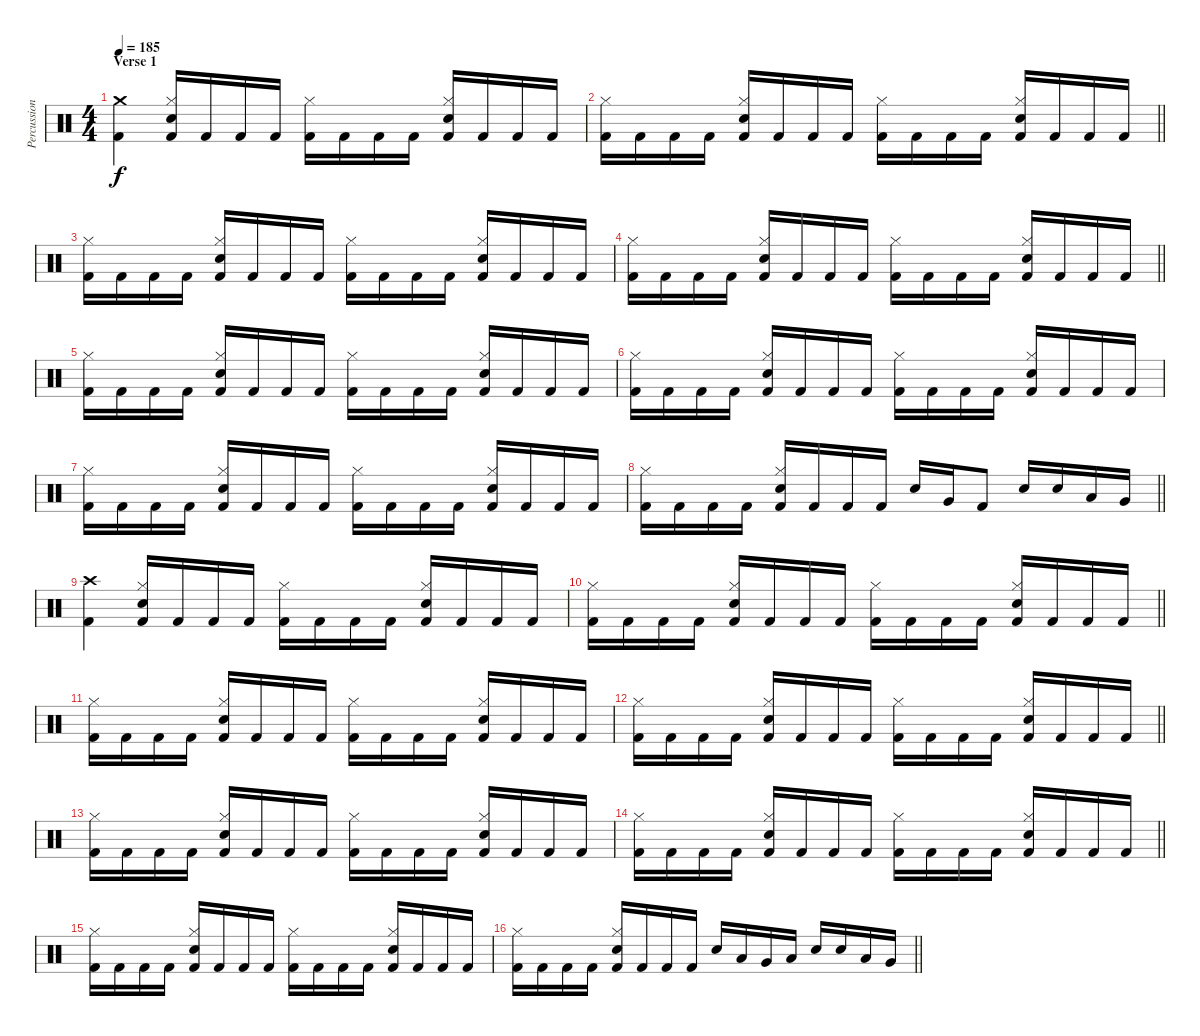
\track ("Percussion" "Percussion") {instrument percussion}
\staff {score}
\articulation defaults
\ts (4 4)
\section ("" "Verse 1")
\tempo 185
\clef neutral
\ks c
("Crash medium (hit)" "Kick (hit) 2").4{dy f} ("Hi-Hat (closed)" "Snare (hit) 2" "Kick (hit) 2").16 "Kick (hit) 2".16 "Kick (hit) 2".16 "Kick (hit) 2".16 ("Hi-Hat (closed)" "Kick (hit) 2").16 "Kick (hit) 2".16 "Kick (hit) 2".16 "Kick (hit) 2".16 ("Hi-Hat (closed)" "Snare (hit) 2" "Kick (hit) 2").16 "Kick (hit) 2".16 "Kick (hit) 2".16 "Kick (hit) 2".16 |
\barLineRight lightlight
("Hi-Hat (closed)" "Kick (hit) 2").16 "Kick (hit) 2".16 "Kick (hit) 2".16 "Kick (hit) 2".16 ("Hi-Hat (closed)" "Snare (hit) 2" "Kick (hit) 2").16 "Kick (hit) 2".16 "Kick (hit) 2".16 "Kick (hit) 2".16 ("Hi-Hat (closed)" "Kick (hit) 2").16 "Kick (hit) 2".16 "Kick (hit) 2".16 "Kick (hit) 2".16 ("Hi-Hat (closed)" "Snare (hit) 2" "Kick (hit) 2").16 "Kick (hit) 2".16 "Kick (hit) 2".16 "Kick (hit) 2".16 |
("Hi-Hat (closed)" "Kick (hit) 2").16 "Kick (hit) 2".16 "Kick (hit) 2".16 "Kick (hit) 2".16 ("Hi-Hat (closed)" "Snare (hit) 2" "Kick (hit) 2").16 "Kick (hit) 2".16 "Kick (hit) 2".16 "Kick (hit) 2".16 ("Hi-Hat (closed)" "Kick (hit) 2").16 "Kick (hit) 2".16 "Kick (hit) 2".16 "Kick (hit) 2".16 ("Hi-Hat (closed)" "Snare (hit) 2" "Kick (hit) 2").16 "Kick (hit) 2".16 "Kick (hit) 2".16 "Kick (hit) 2".16 |
\barLineRight lightlight
("Hi-Hat (closed)" "Kick (hit) 2").16 "Kick (hit) 2".16 "Kick (hit) 2".16 "Kick (hit) 2".16 ("Hi-Hat (closed)" "Snare (hit) 2" "Kick (hit) 2").16 "Kick (hit) 2".16 "Kick (hit) 2".16 "Kick (hit) 2".16 ("Hi-Hat (closed)" "Kick (hit) 2").16 "Kick (hit) 2".16 "Kick (hit) 2".16 "Kick (hit) 2".16 ("Hi-Hat (closed)" "Snare (hit) 2" "Kick (hit) 2").16 "Kick (hit) 2".16 "Kick (hit) 2".16 "Kick (hit) 2".16 |
("Hi-Hat (closed)" "Kick (hit) 2").16 "Kick (hit) 2".16 "Kick (hit) 2".16 "Kick (hit) 2".16 ("Hi-Hat (closed)" "Snare (hit) 2" "Kick (hit) 2").16 "Kick (hit) 2".16 "Kick (hit) 2".16 "Kick (hit) 2".16 ("Hi-Hat (closed)" "Kick (hit) 2").16 "Kick (hit) 2".16 "Kick (hit) 2".16 "Kick (hit) 2".16 ("Hi-Hat (closed)" "Snare (hit) 2" "Kick (hit) 2").16 "Kick (hit) 2".16 "Kick (hit) 2".16 "Kick (hit) 2".16 |
("Hi-Hat (closed)" "Kick (hit) 2").16 "Kick (hit) 2".16 "Kick (hit) 2".16 "Kick (hit) 2".16 ("Hi-Hat (closed)" "Snare (hit) 2" "Kick (hit) 2").16 "Kick (hit) 2".16 "Kick (hit) 2".16 "Kick (hit) 2".16 ("Hi-Hat (closed)" "Kick (hit) 2").16 "Kick (hit) 2".16 "Kick (hit) 2".16 "Kick (hit) 2".16 ("Hi-Hat (closed)" "Snare (hit) 2" "Kick (hit) 2").16 "Kick (hit) 2".16 "Kick (hit) 2".16 "Kick (hit) 2".16 |
("Hi-Hat (closed)" "Kick (hit) 2").16 "Kick (hit) 2".16 "Kick (hit) 2".16 "Kick (hit) 2".16 ("Hi-Hat (closed)" "Snare (hit) 2" "Kick (hit) 2").16 "Kick (hit) 2".16 "Kick (hit) 2".16 "Kick (hit) 2".16 ("Hi-Hat (closed)" "Kick (hit) 2").16 "Kick (hit) 2".16 "Kick (hit) 2".16 "Kick (hit) 2".16 ("Hi-Hat (closed)" "Snare (hit) 2" "Kick (hit) 2").16 "Kick (hit) 2".16 "Kick (hit) 2".16 "Kick (hit) 2".16 |
\barLineRight lightlight
("Hi-Hat (closed)" "Kick (hit) 2").16 "Kick (hit) 2".16 "Kick (hit) 2".16 "Kick (hit) 2".16 ("Hi-Hat (closed)" "Snare (hit) 2" "Kick (hit) 2").16 "Kick (hit) 2".16 "Kick (hit) 2".16 "Kick (hit) 2".16 "Snare (hit) 2".16 "Very Low Tom (hit)".16 "Kick (hit) 2".8 "Snare (hit) 2".16 "Snare (hit) 2".16 "Low Tom (hit)".16 "Very Low Tom (hit)".16 |
("Crash high (hit)" "Kick (hit) 2").4 ("Hi-Hat (closed)" "Snare (hit) 2" "Kick (hit) 2").16 "Kick (hit) 2".16 "Kick (hit) 2".16 "Kick (hit) 2".16 ("Hi-Hat (closed)" "Kick (hit) 2").16 "Kick (hit) 2".16 "Kick (hit) 2".16 "Kick (hit) 2".16 ("Hi-Hat (closed)" "Snare (hit) 2" "Kick (hit) 2").16 "Kick (hit) 2".16 "Kick (hit) 2".16 "Kick (hit) 2".16 |
\barLineRight lightlight
("Hi-Hat (closed)" "Kick (hit) 2").16 "Kick (hit) 2".16 "Kick (hit) 2".16 "Kick (hit) 2".16 ("Hi-Hat (closed)" "Snare (hit) 2" "Kick (hit) 2").16 "Kick (hit) 2".16 "Kick (hit) 2".16 "Kick (hit) 2".16 ("Hi-Hat (closed)" "Kick (hit) 2").16 "Kick (hit) 2".16 "Kick (hit) 2".16 "Kick (hit) 2".16 ("Hi-Hat (closed)" "Snare (hit) 2" "Kick (hit) 2").16 "Kick (hit) 2".16 "Kick (hit) 2".16 "Kick (hit) 2".16 |
("Hi-Hat (closed)" "Kick (hit) 2").16 "Kick (hit) 2".16 "Kick (hit) 2".16 "Kick (hit) 2".16 ("Hi-Hat (closed)" "Snare (hit) 2" "Kick (hit) 2").16 "Kick (hit) 2".16 "Kick (hit) 2".16 "Kick (hit) 2".16 ("Hi-Hat (closed)" "Kick (hit) 2").16 "Kick (hit) 2".16 "Kick (hit) 2".16 "Kick (hit) 2".16 ("Hi-Hat (closed)" "Snare (hit) 2" "Kick (hit) 2").16 "Kick (hit) 2".16 "Kick (hit) 2".16 "Kick (hit) 2".16 |
\barLineRight lightlight
("Hi-Hat (closed)" "Kick (hit) 2").16 "Kick (hit) 2".16 "Kick (hit) 2".16 "Kick (hit) 2".16 ("Hi-Hat (closed)" "Snare (hit) 2" "Kick (hit) 2").16 "Kick (hit) 2".16 "Kick (hit) 2".16 "Kick (hit) 2".16 ("Hi-Hat (closed)" "Kick (hit) 2").16 "Kick (hit) 2".16 "Kick (hit) 2".16 "Kick (hit) 2".16 ("Hi-Hat (closed)" "Snare (hit) 2" "Kick (hit) 2").16 "Kick (hit) 2".16 "Kick (hit) 2".16 "Kick (hit) 2".16 |
("Hi-Hat (closed)" "Kick (hit) 2").16 "Kick (hit) 2".16 "Kick (hit) 2".16 "Kick (hit) 2".16 ("Hi-Hat (closed)" "Snare (hit) 2" "Kick (hit) 2").16 "Kick (hit) 2".16 "Kick (hit) 2".16 "Kick (hit) 2".16 ("Hi-Hat (closed)" "Kick (hit) 2").16 "Kick (hit) 2".16 "Kick (hit) 2".16 "Kick (hit) 2".16 ("Hi-Hat (closed)" "Snare (hit) 2" "Kick (hit) 2").16 "Kick (hit) 2".16 "Kick (hit) 2".16 "Kick (hit) 2".16 |
\barLineRight lightlight
("Hi-Hat (closed)" "Kick (hit) 2").16 "Kick (hit) 2".16 "Kick (hit) 2".16 "Kick (hit) 2".16 ("Hi-Hat (closed)" "Snare (hit) 2" "Kick (hit) 2").16 "Kick (hit) 2".16 "Kick (hit) 2".16 "Kick (hit) 2".16 ("Hi-Hat (closed)" "Kick (hit) 2").16 "Kick (hit) 2".16 "Kick (hit) 2".16 "Kick (hit) 2".16 ("Hi-Hat (closed)" "Snare (hit) 2" "Kick (hit) 2").16 "Kick (hit) 2".16 "Kick (hit) 2".16 "Kick (hit) 2".16 |
("Hi-Hat (closed)" "Kick (hit) 2").16 "Kick (hit) 2".16 "Kick (hit) 2".16 "Kick (hit) 2".16 ("Hi-Hat (closed)" "Snare (hit) 2" "Kick (hit) 2").16 "Kick (hit) 2".16 "Kick (hit) 2".16 "Kick (hit) 2".16 ("Hi-Hat (closed)" "Kick (hit) 2").16 "Kick (hit) 2".16 "Kick (hit) 2".16 "Kick (hit) 2".16 ("Hi-Hat (closed)" "Snare (hit) 2" "Kick (hit) 2").16 "Kick (hit) 2".16 "Kick (hit) 2".16 "Kick (hit) 2".16 |
\barLineRight lightlight
("Hi-Hat (closed)" "Kick (hit) 2").16 "Kick (hit) 2".16 "Kick (hit) 2".16 "Kick (hit) 2".16 ("Hi-Hat (closed)" "Snare (hit) 2" "Kick (hit) 2").16 "Kick (hit) 2".16 "Kick (hit) 2".16 "Kick (hit) 2".16 "Snare (hit) 2".16 "Low Tom (hit)".16 "Very Low Tom (hit)".16 "Low Floor Tom (hit)".16 "Snare (hit) 2".16 "Snare (hit) 2".16 "Low Tom (hit)".16 "Very Low Tom (hit)".16
